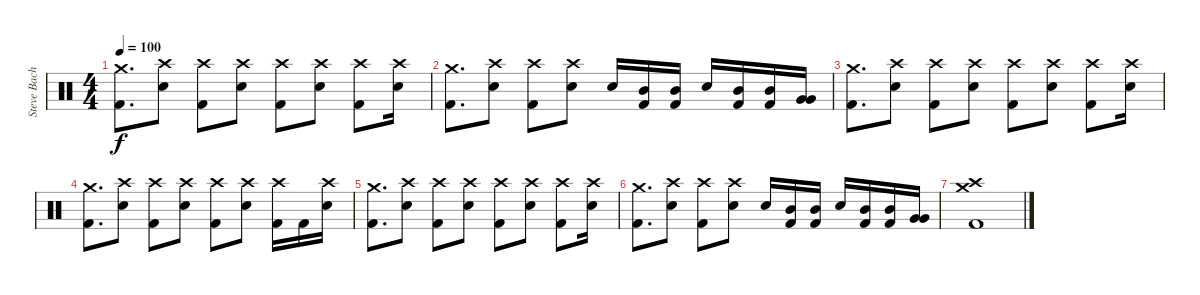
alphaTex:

\track ("Steve Bache" "Steve Bach") {instrument percussion}
\staff {score}
\articulation defaults
\ts (4 4)
\tempo 100
\clef neutral
\ks c
("Crash medium (hit)" "Kick (hit) 2").8{d dy f} ("Crash high (hit)" "Electric Snare (hit)").8 ("Crash high (hit)" "Kick (hit) 2").8 ("Crash high (hit)" "Electric Snare (hit)").8 ("Crash high (hit)" "Kick (hit) 2").8 ("Crash high (hit)" "Electric Snare (hit)").8 ("Crash high (hit)" "Kick (hit) 2").8 ("Crash high (hit)" "Electric Snare (hit)").16 |
("Crash medium (hit)" "Kick (hit) 2").8{d} ("Crash high (hit)" "Electric Snare (hit)").8 ("Crash high (hit)" "Kick (hit) 2").8 ("Crash high (hit)" "Electric Snare (hit)").8 "Electric Snare (hit)".16 ("Mid Tom (hit)" "Kick (hit) 2").16 ("Mid Tom (hit)" "Kick (hit) 2").16 "Electric Snare (hit)".16 ("Mid Tom (hit)" "Kick (hit) 2").16 ("Mid Tom (hit)" "Kick (hit) 2").16 ("Very Low Tom (hit)" "Very Low Tom (hit)").16 |
("Crash medium (hit)" "Kick (hit) 2").8{d} ("Crash high (hit)" "Electric Snare (hit)").8 ("Crash high (hit)" "Kick (hit) 2").8 ("Crash high (hit)" "Electric Snare (hit)").8 ("Crash high (hit)" "Kick (hit) 2").8 ("Crash high (hit)" "Electric Snare (hit)").8 ("Crash high (hit)" "Kick (hit) 2").8 ("Crash high (hit)" "Electric Snare (hit)").16 |
("Crash medium (hit)" "Kick (hit) 2").8{d} ("Crash high (hit)" "Electric Snare (hit)").8 ("Crash high (hit)" "Kick (hit) 2").8 ("Crash high (hit)" "Electric Snare (hit)").8 ("Crash high (hit)" "Kick (hit) 2").8 ("Crash high (hit)" "Electric Snare (hit)").8 ("Crash high (hit)" "Kick (hit) 2").16 "Kick (hit) 2".16 ("Crash high (hit)" "Electric Snare (hit)").16 |
("Crash medium (hit)" "Kick (hit) 2").8{d} ("Crash high (hit)" "Electric Snare (hit)").8 ("Crash high (hit)" "Kick (hit) 2").8 ("Crash high (hit)" "Electric Snare (hit)").8 ("Crash high (hit)" "Kick (hit) 2").8 ("Crash high (hit)" "Electric Snare (hit)").8 ("Crash high (hit)" "Kick (hit) 2").8 ("Crash high (hit)" "Electric Snare (hit)").16 |
("Crash medium (hit)" "Kick (hit) 2").8{d} ("Crash high (hit)" "Electric Snare (hit)").8 ("Crash high (hit)" "Kick (hit) 2").8 ("Crash high (hit)" "Electric Snare (hit)").8 "Electric Snare (hit)".16 ("Mid Tom (hit)" "Kick (hit) 2").16 ("Mid Tom (hit)" "Kick (hit) 2").16 "Electric Snare (hit)".16 ("Mid Tom (hit)" "Kick (hit) 2").16 ("Mid Tom (hit)" "Kick (hit) 2").16 ("Very Low Tom (hit)" "Very Low Tom (hit)").16 |
("Crash high (hit)" "Crash medium (hit)" "Kick (hit) 2").1
